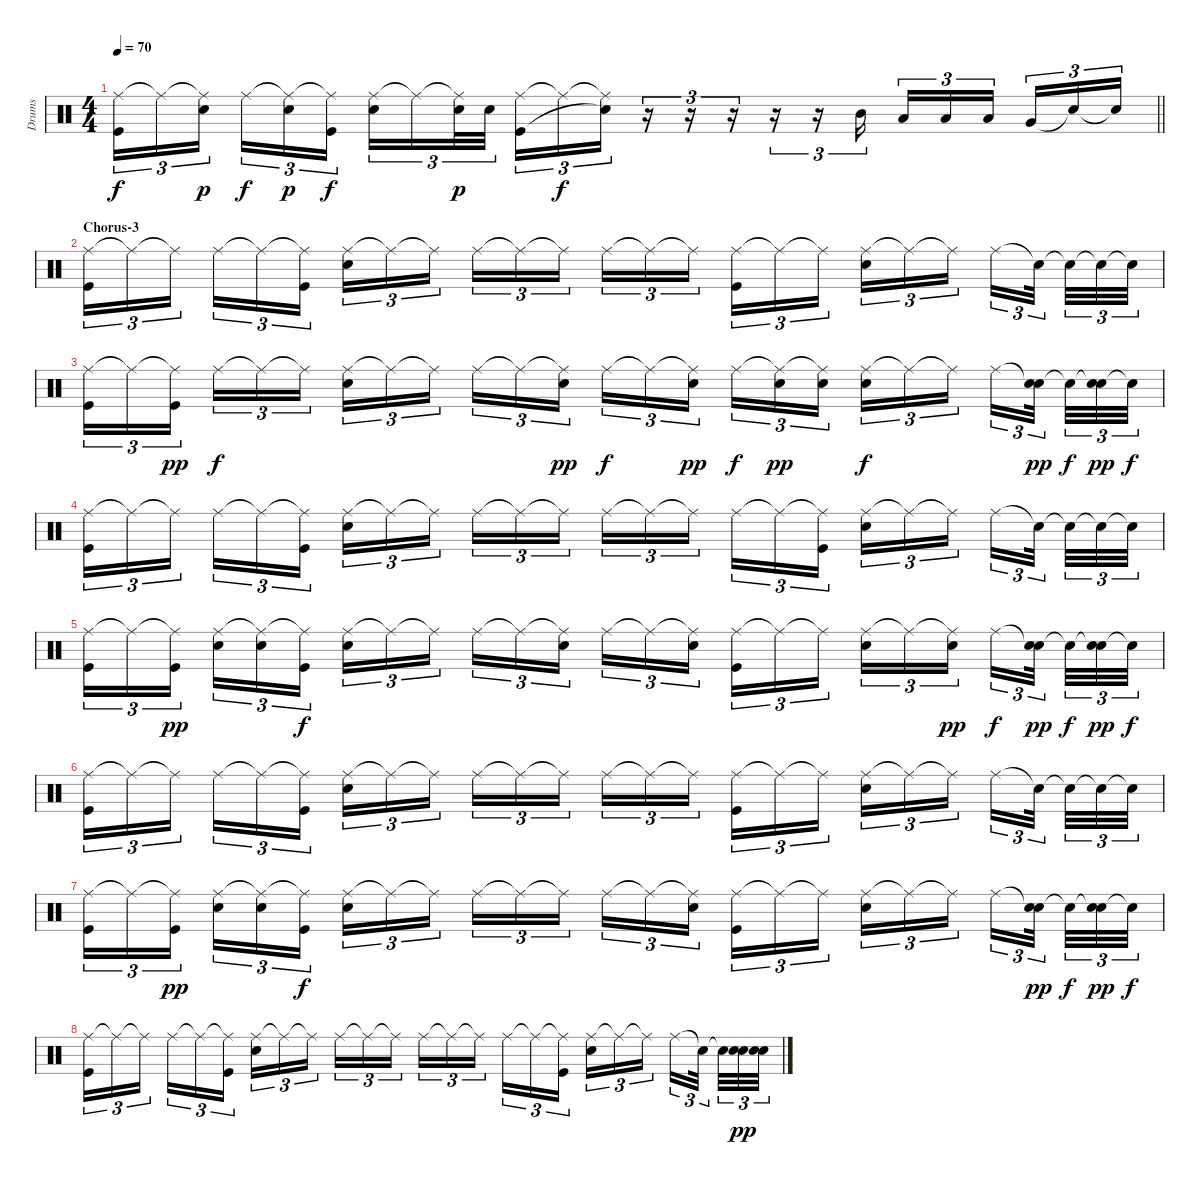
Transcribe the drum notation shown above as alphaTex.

\track ("Drums" "Drums") {instrument percussion}
\staff {score}
\articulation defaults
\ts (4 4)
\tempo 70
\clef neutral
\barLineRight lightlight
\ks c
("Ride (middle)" "Kick (hit)").16{tu (3 2) dy f} "Ride (middle)"{t}.16{tu (3 2)} ("Ride (middle)"{t} "Electric Snare (hit)").16{tu (3 2) dy p} "Ride (middle)".16{tu (3 2) dy f} ("Ride (middle)"{t} "Electric Snare (hit)").16{tu (3 2) dy p} ("Ride (middle)"{t} "Kick (hit)").16{tu (3 2) dy f} ("Ride (middle)" "Electric Snare (hit)").16{tu (3 2)} "Ride (middle)"{t}.16{tu (3 2)} ("Ride (middle)"{t} "Electric Snare (hit)").32{tu (3 2) dy p} "Electric Snare (hit)".32{tu (3 2)} ("Ride (middle)" "Kick (hit)").16{tu (3 2)} "Ride (middle)"{t}.16{tu (3 2) dy f} ("Ride (middle)"{t} "Electric Snare (hit)"{t}).16{tu (3 2)} r.16{tu (3 2)} r.16{tu (3 2)} r.16{tu (3 2)} r.16{tu (3 2)} r.16{tu (3 2)} "Mid Tom (hit)".16{tu (3 2)} "Low Tom (hit)".16{tu (3 2)} "Low Tom (hit)".16{tu (3 2)} "Low Tom (hit)".16{tu (3 2)} "Very Low Tom (hit)".16{tu (3 2)} "Snare (hit)"{t}.16{tu (3 2)} "Snare (hit)"{t}.16{tu (3 2)} |
\section ("" "Chorus-3")
("Ride (middle)" "Kick (hit)").16{tu (3 2)} "Ride (middle)"{t}.16{tu (3 2)} "Ride (middle)"{t}.16{tu (3 2)} "Ride (middle)".16{tu (3 2)} "Ride (middle)"{t}.16{tu (3 2)} ("Ride (middle)"{t} "Kick (hit)").16{tu (3 2)} ("Ride (middle)" "Electric Snare (hit)").16{tu (3 2)} "Ride (middle)"{t}.16{tu (3 2)} "Ride (middle)"{t}.16{tu (3 2)} "Ride (middle)".16{tu (3 2)} "Ride (middle)"{t}.16{tu (3 2)} "Ride (middle)"{t}.16{tu (3 2)} "Ride (middle)".16{tu (3 2)} "Ride (middle)"{t}.16{tu (3 2)} "Ride (middle)"{t}.16{tu (3 2)} ("Ride (middle)" "Kick (hit)").16{tu (3 2)} "Ride (middle)"{t}.16{tu (3 2)} "Ride (middle)"{t}.16{tu (3 2)} ("Ride (middle)" "Electric Snare (hit)").16{tu (3 2)} "Ride (middle)"{t}.16{tu (3 2)} "Ride (middle)"{t}.16{tu (3 2)} "Ride (middle)".16{tu (3 2)} "Snare (hit)"{t}.32{tu (3 2)} "Snare (hit)"{t}.32{tu (3 2)} "Snare (hit)"{t}.32{tu (3 2)} "Snare (hit)"{t}.32{tu (3 2)} |
("Ride (middle)" "Kick (hit)").16{tu (3 2)} "Ride (middle)"{t}.16{tu (3 2)} ("Ride (middle)"{t} "Kick (hit)").16{tu (3 2) dy pp} "Ride (middle)".16{tu (3 2) dy f} "Ride (middle)"{t}.16{tu (3 2)} "Ride (middle)"{t}.16{tu (3 2)} ("Ride (middle)" "Electric Snare (hit)").16{tu (3 2)} "Ride (middle)"{t}.16{tu (3 2)} "Ride (middle)"{t}.16{tu (3 2)} "Ride (middle)".16{tu (3 2)} "Ride (middle)"{t}.16{tu (3 2)} ("Ride (middle)"{t} "Electric Snare (hit)").16{tu (3 2) dy pp} "Ride (middle)".16{tu (3 2) dy f} "Ride (middle)"{t}.16{tu (3 2)} ("Ride (middle)"{t} "Electric Snare (hit)").16{tu (3 2) dy pp} "Ride (middle)".16{tu (3 2) dy f} ("Ride (middle)"{t} "Electric Snare (hit)").16{tu (3 2) dy pp} ("Ride (middle)"{t} "Electric Snare (hit)").16{tu (3 2)} ("Ride (middle)" "Electric Snare (hit)").16{tu (3 2) dy f} "Ride (middle)"{t}.16{tu (3 2)} "Ride (middle)"{t}.16{tu (3 2)} "Ride (middle)".16{tu (3 2)} ("Snare (hit)"{t} "Electric Snare (hit)").32{tu (3 2) dy pp} "Snare (hit)"{t}.32{tu (3 2) dy f} ("Snare (hit)"{t} "Electric Snare (hit)").32{tu (3 2) dy pp} "Snare (hit)"{t}.32{tu (3 2) dy f} |
("Ride (middle)" "Kick (hit)").16{tu (3 2)} "Ride (middle)"{t}.16{tu (3 2)} "Ride (middle)"{t}.16{tu (3 2)} "Ride (middle)".16{tu (3 2)} "Ride (middle)"{t}.16{tu (3 2)} ("Ride (middle)"{t} "Kick (hit)").16{tu (3 2)} ("Ride (middle)" "Electric Snare (hit)").16{tu (3 2)} "Ride (middle)"{t}.16{tu (3 2)} "Ride (middle)"{t}.16{tu (3 2)} "Ride (middle)".16{tu (3 2)} "Ride (middle)"{t}.16{tu (3 2)} "Ride (middle)"{t}.16{tu (3 2)} "Ride (middle)".16{tu (3 2)} "Ride (middle)"{t}.16{tu (3 2)} "Ride (middle)"{t}.16{tu (3 2)} "Ride (middle)".16{tu (3 2)} "Ride (middle)"{t}.16{tu (3 2)} ("Ride (middle)"{t} "Kick (hit)").16{tu (3 2)} ("Ride (middle)" "Electric Snare (hit)").16{tu (3 2)} "Ride (middle)"{t}.16{tu (3 2)} "Ride (middle)"{t}.16{tu (3 2)} "Ride (middle)".16{tu (3 2)} "Snare (hit)"{t}.32{tu (3 2)} "Snare (hit)"{t}.32{tu (3 2)} "Snare (hit)"{t}.32{tu (3 2)} "Snare (hit)"{t}.32{tu (3 2)} |
("Ride (middle)" "Kick (hit)").16{tu (3 2)} "Ride (middle)"{t}.16{tu (3 2)} ("Ride (middle)"{t} "Kick (hit)").16{tu (3 2) dy pp} ("Ride (middle)" "Electric Snare (hit)").16{tu (3 2)} ("Ride (middle)"{t} "Electric Snare (hit)").16{tu (3 2)} ("Ride (middle)"{t} "Kick (hit)").16{tu (3 2) dy f} ("Ride (middle)" "Electric Snare (hit)").16{tu (3 2)} "Ride (middle)"{t}.16{tu (3 2)} "Ride (middle)"{t}.16{tu (3 2)} "Ride (middle)".16{tu (3 2)} "Ride (middle)"{t}.16{tu (3 2)} ("Ride (middle)"{t} "Electric Snare (hit)").16{tu (3 2)} "Ride (middle)".16{tu (3 2)} "Ride (middle)"{t}.16{tu (3 2)} ("Ride (middle)"{t} "Electric Snare (hit)").16{tu (3 2)} ("Ride (middle)" "Kick (hit)").16{tu (3 2)} "Ride (middle)"{t}.16{tu (3 2)} "Ride (middle)"{t}.16{tu (3 2)} ("Ride (middle)" "Electric Snare (hit)").16{tu (3 2)} "Ride (middle)"{t}.16{tu (3 2)} ("Ride (middle)"{t} "Electric Snare (hit)").16{tu (3 2) dy pp} "Ride (middle)".16{tu (3 2) dy f} ("Snare (hit)"{t} "Electric Snare (hit)").32{tu (3 2) dy pp} "Snare (hit)"{t}.32{tu (3 2) dy f} ("Snare (hit)"{t} "Electric Snare (hit)").32{tu (3 2) dy pp} "Snare (hit)"{t}.32{tu (3 2) dy f} |
("Ride (middle)" "Kick (hit)").16{tu (3 2)} "Ride (middle)"{t}.16{tu (3 2)} "Ride (middle)"{t}.16{tu (3 2)} "Ride (middle)".16{tu (3 2)} "Ride (middle)"{t}.16{tu (3 2)} ("Ride (middle)"{t} "Kick (hit)").16{tu (3 2)} ("Ride (middle)" "Electric Snare (hit)").16{tu (3 2)} "Ride (middle)"{t}.16{tu (3 2)} "Ride (middle)"{t}.16{tu (3 2)} "Ride (middle)".16{tu (3 2)} "Ride (middle)"{t}.16{tu (3 2)} "Ride (middle)"{t}.16{tu (3 2)} "Ride (middle)".16{tu (3 2)} "Ride (middle)"{t}.16{tu (3 2)} "Ride (middle)"{t}.16{tu (3 2)} ("Ride (middle)" "Kick (hit)").16{tu (3 2)} "Ride (middle)"{t}.16{tu (3 2)} "Ride (middle)"{t}.16{tu (3 2)} ("Ride (middle)" "Electric Snare (hit)").16{tu (3 2)} "Ride (middle)"{t}.16{tu (3 2)} "Ride (middle)"{t}.16{tu (3 2)} "Ride (middle)".16{tu (3 2)} "Snare (hit)"{t}.32{tu (3 2)} "Snare (hit)"{t}.32{tu (3 2)} "Snare (hit)"{t}.32{tu (3 2)} "Snare (hit)"{t}.32{tu (3 2)} |
("Ride (middle)" "Kick (hit)").16{tu (3 2)} "Ride (middle)"{t}.16{tu (3 2)} ("Ride (middle)"{t} "Kick (hit)").16{tu (3 2) dy pp} ("Ride (middle)" "Electric Snare (hit)").16{tu (3 2)} ("Ride (middle)"{t} "Electric Snare (hit)").16{tu (3 2)} ("Ride (middle)"{t} "Kick (hit)").16{tu (3 2) dy f} ("Ride (middle)" "Electric Snare (hit)").16{tu (3 2)} "Ride (middle)"{t}.16{tu (3 2)} "Ride (middle)"{t}.16{tu (3 2)} "Ride (middle)".16{tu (3 2)} "Ride (middle)"{t}.16{tu (3 2)} "Ride (middle)"{t}.16{tu (3 2)} "Ride (middle)".16{tu (3 2)} "Ride (middle)"{t}.16{tu (3 2)} ("Ride (middle)"{t} "Electric Snare (hit)").16{tu (3 2)} ("Ride (middle)" "Kick (hit)").16{tu (3 2)} "Ride (middle)"{t}.16{tu (3 2)} "Ride (middle)"{t}.16{tu (3 2)} ("Ride (middle)" "Electric Snare (hit)").16{tu (3 2)} "Ride (middle)"{t}.16{tu (3 2)} "Ride (middle)"{t}.16{tu (3 2)} "Ride (middle)".16{tu (3 2)} ("Snare (hit)"{t} "Electric Snare (hit)").32{tu (3 2) dy pp} "Snare (hit)"{t}.32{tu (3 2) dy f} ("Snare (hit)"{t} "Electric Snare (hit)").32{tu (3 2) dy pp} "Snare (hit)"{t}.32{tu (3 2) dy f} |
("Ride (middle)" "Kick (hit)").16{tu (3 2)} "Ride (middle)"{t}.16{tu (3 2)} "Ride (middle)"{t}.16{tu (3 2)} "Ride (middle)".16{tu (3 2)} "Ride (middle)"{t}.16{tu (3 2)} ("Ride (middle)"{t} "Kick (hit)").16{tu (3 2)} ("Ride (middle)" "Electric Snare (hit)").16{tu (3 2)} "Ride (middle)"{t}.16{tu (3 2)} "Ride (middle)"{t}.16{tu (3 2)} "Ride (middle)".16{tu (3 2)} "Ride (middle)"{t}.16{tu (3 2)} "Ride (middle)"{t}.16{tu (3 2)} "Ride (middle)".16{tu (3 2)} "Ride (middle)"{t}.16{tu (3 2)} "Ride (middle)"{t}.16{tu (3 2)} "Ride (middle)".16{tu (3 2)} "Ride (middle)"{t}.16{tu (3 2)} ("Ride (middle)"{t} "Kick (hit)").16{tu (3 2)} ("Ride (middle)" "Electric Snare (hit)").16{tu (3 2)} "Ride (middle)"{t}.16{tu (3 2)} "Ride (middle)"{t}.16{tu (3 2)} "Ride (middle)".16{tu (3 2)} "Snare (hit)"{t}.32{tu (3 2)} "Snare (hit)"{t}.32{tu (3 2)} ("Snare (hit)"{t} "Electric Snare (hit)").32{tu (3 2) dy pp} ("Snare (hit)"{t} "Electric Snare (hit)").32{tu (3 2)}
